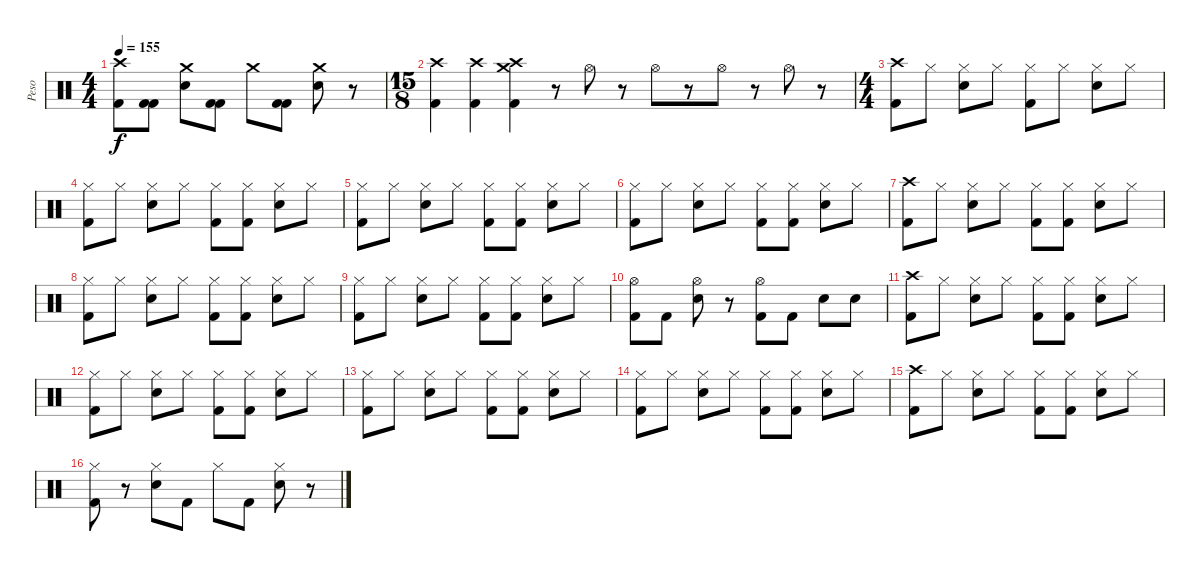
\track ("Peso" "Peso") {instrument percussion}
\staff {score}
\articulation defaults
\ts (4 4)
\tempo 155
\clef neutral
\ks c
("Crash high (hit)" "Kick (hit) 2").8{dy f} ("Kick (hit) 2" "Kick (hit) 2").8 ("Crash medium (hit)" "Snare (hit) 2").8 ("Kick (hit) 2" "Kick (hit) 2").8 "Crash medium (hit)".8 ("Kick (hit) 2" "Kick (hit) 2").8 ("Crash medium (hit)" "Snare (hit) 2").8 r.8 |
\ts (15 8)
("Crash high (hit)" "Kick (hit) 2").4 ("Crash high (hit)" "Kick (hit) 2").4 ("Crash high (hit)" "Crash medium (hit)" "Kick (hit) 2").4 r.8 "Hi-Hat (open)".8 r.8 "Hi-Hat (open)".8 r.8 "Hi-Hat (open)".8 r.8 "Hi-Hat (open)".8 r.8 |
\ts (4 4)
("Crash high (hit)" "Kick (hit) 2").8 "Hi-Hat (closed)".8 ("Hi-Hat (closed)" "Snare (hit) 2").8 "Hi-Hat (closed)".8 ("Hi-Hat (closed)" "Kick (hit) 2").8 "Hi-Hat (closed)".8 ("Hi-Hat (closed)" "Snare (hit) 2").8 "Hi-Hat (closed)".8 |
("Hi-Hat (closed)" "Kick (hit) 2").8 "Hi-Hat (closed)".8 ("Hi-Hat (closed)" "Snare (hit) 2").8 "Hi-Hat (closed)".8 ("Hi-Hat (closed)" "Kick (hit) 2").8 ("Hi-Hat (closed)" "Kick (hit) 2").8 ("Hi-Hat (closed)" "Snare (hit) 2").8 "Hi-Hat (closed)".8 |
("Hi-Hat (closed)" "Kick (hit) 2").8 "Hi-Hat (closed)".8 ("Hi-Hat (closed)" "Snare (hit) 2").8 "Hi-Hat (closed)".8 ("Hi-Hat (closed)" "Kick (hit) 2").8 ("Hi-Hat (closed)" "Kick (hit) 2").8 ("Hi-Hat (closed)" "Snare (hit) 2").8 "Hi-Hat (closed)".8 |
("Hi-Hat (closed)" "Kick (hit) 2").8 "Hi-Hat (closed)".8 ("Hi-Hat (closed)" "Snare (hit) 2").8 "Hi-Hat (closed)".8 ("Hi-Hat (closed)" "Kick (hit) 2").8 ("Hi-Hat (closed)" "Kick (hit) 2").8 ("Hi-Hat (closed)" "Snare (hit) 2").8 "Hi-Hat (closed)".8 |
("Crash high (hit)" "Kick (hit) 2").8 "Hi-Hat (closed)".8 ("Hi-Hat (closed)" "Snare (hit) 2").8 "Hi-Hat (closed)".8 ("Hi-Hat (closed)" "Kick (hit) 2").8 ("Hi-Hat (closed)" "Kick (hit) 2").8 ("Hi-Hat (closed)" "Snare (hit) 2").8 "Hi-Hat (closed)".8 |
("Hi-Hat (closed)" "Kick (hit) 2").8 "Hi-Hat (closed)".8 ("Hi-Hat (closed)" "Snare (hit) 2").8 "Hi-Hat (closed)".8 ("Hi-Hat (closed)" "Kick (hit) 2").8 ("Hi-Hat (closed)" "Kick (hit) 2").8 ("Hi-Hat (closed)" "Snare (hit) 2").8 "Hi-Hat (closed)".8 |
("Hi-Hat (closed)" "Kick (hit) 2").8 "Hi-Hat (closed)".8 ("Hi-Hat (closed)" "Snare (hit) 2").8 "Hi-Hat (closed)".8 ("Hi-Hat (closed)" "Kick (hit) 2").8 ("Hi-Hat (closed)" "Kick (hit) 2").8 ("Hi-Hat (closed)" "Snare (hit) 2").8 "Hi-Hat (closed)".8 |
("Hi-Hat (open)" "Kick (hit) 2").8 "Kick (hit) 2".8 ("Hi-Hat (open)" "Snare (hit) 2").8 r.8 ("Hi-Hat (open)" "Kick (hit) 2").8 "Kick (hit) 2".8 "Snare (hit) 2".8 "Snare (hit) 2".8 |
("Crash high (hit)" "Kick (hit) 2").8 "Hi-Hat (closed)".8 ("Hi-Hat (closed)" "Snare (hit) 2").8 "Hi-Hat (closed)".8 ("Hi-Hat (closed)" "Kick (hit) 2").8 ("Hi-Hat (closed)" "Kick (hit) 2").8 ("Hi-Hat (closed)" "Snare (hit) 2").8 "Hi-Hat (closed)".8 |
("Hi-Hat (closed)" "Kick (hit) 2").8 "Hi-Hat (closed)".8 ("Hi-Hat (closed)" "Snare (hit) 2").8 "Hi-Hat (closed)".8 ("Hi-Hat (closed)" "Kick (hit) 2").8 ("Hi-Hat (closed)" "Kick (hit) 2").8 ("Hi-Hat (closed)" "Snare (hit) 2").8 "Hi-Hat (closed)".8 |
("Hi-Hat (closed)" "Kick (hit) 2").8 "Hi-Hat (closed)".8 ("Hi-Hat (closed)" "Snare (hit) 2").8 "Hi-Hat (closed)".8 ("Hi-Hat (closed)" "Kick (hit) 2").8 ("Hi-Hat (closed)" "Kick (hit) 2").8 ("Hi-Hat (closed)" "Snare (hit) 2").8 "Hi-Hat (closed)".8 |
("Hi-Hat (closed)" "Kick (hit) 2").8 "Hi-Hat (closed)".8 ("Hi-Hat (closed)" "Snare (hit) 2").8 "Hi-Hat (closed)".8 ("Hi-Hat (closed)" "Kick (hit) 2").8 ("Hi-Hat (closed)" "Kick (hit) 2").8 ("Hi-Hat (closed)" "Snare (hit) 2").8 "Hi-Hat (closed)".8 |
("Crash high (hit)" "Kick (hit) 2").8 "Hi-Hat (closed)".8 ("Hi-Hat (closed)" "Snare (hit) 2").8 "Hi-Hat (closed)".8 ("Hi-Hat (closed)" "Kick (hit) 2").8 ("Hi-Hat (closed)" "Kick (hit) 2").8 ("Hi-Hat (closed)" "Snare (hit) 2").8 "Hi-Hat (closed)".8 |
("Hi-Hat (closed)" "Kick (hit) 2").8 r.8 ("Hi-Hat (closed)" "Snare (hit) 2").8 "Kick (hit) 2".8 "Hi-Hat (closed)".8 "Kick (hit) 2".8 ("Hi-Hat (closed)" "Snare (hit) 2").8 r.8
